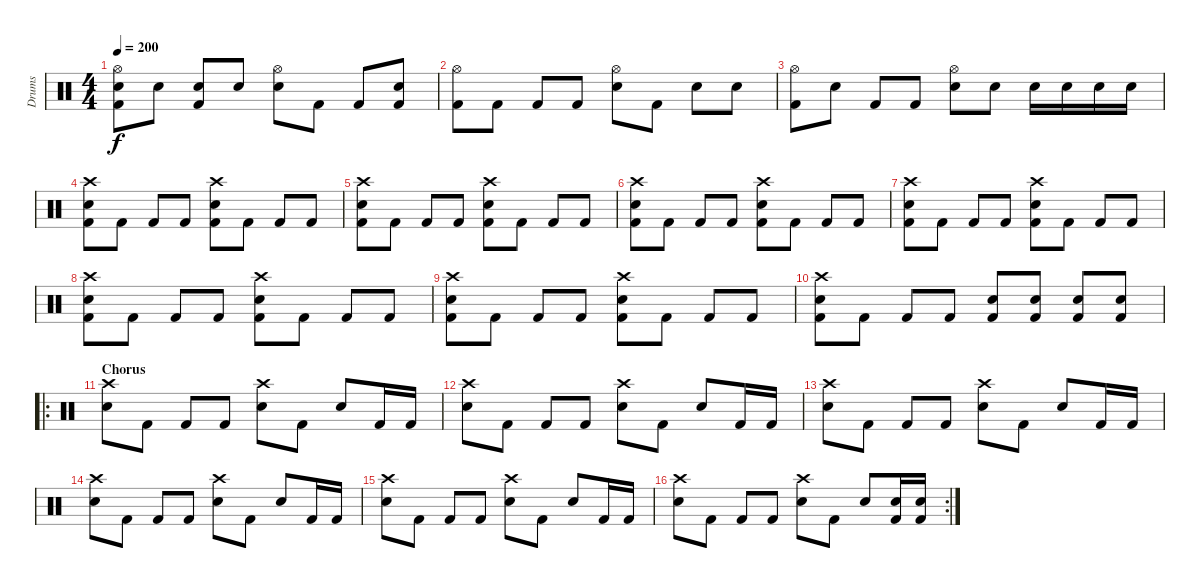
\track ("Drums" "Drums") {instrument percussion}
\staff {score}
\articulation defaults
\ts (4 4)
\tempo 200
\clef neutral
\ks c
("Hi-Hat (open)" "Electric Snare (hit)" "Kick (hit) 2").8{dy f} "Electric Snare (hit)".8 ("Electric Snare (hit)" "Kick (hit) 2").8 "Electric Snare (hit)".8 ("Hi-Hat (open)" "Electric Snare (hit)").8 "Kick (hit) 2".8 "Kick (hit) 2".8 ("Electric Snare (hit)" "Kick (hit) 2").8 |
("Hi-Hat (open)" "Kick (hit) 2").8 "Kick (hit) 2".8 "Kick (hit) 2".8 "Kick (hit) 2".8 ("Hi-Hat (open)" "Electric Snare (hit)").8 "Kick (hit) 2".8 "Electric Snare (hit)".8 "Electric Snare (hit)".8 |
("Hi-Hat (open)" "Kick (hit) 2").8 "Electric Snare (hit)".8 "Kick (hit) 2".8 "Kick (hit) 2".8 ("Hi-Hat (open)" "Electric Snare (hit)").8 "Electric Snare (hit)".8 "Electric Snare (hit)".16 "Electric Snare (hit)".16 "Electric Snare (hit)".16 "Electric Snare (hit)".16 |
("Crash high (hit)" "Electric Snare (hit)" "Kick (hit) 2").8 "Kick (hit) 2".8 "Kick (hit) 2".8 "Kick (hit) 2".8 ("Crash high (hit)" "Electric Snare (hit)" "Kick (hit) 2").8 "Kick (hit) 2".8 "Kick (hit) 2".8 "Kick (hit) 2".8 |
("Crash high (hit)" "Electric Snare (hit)" "Kick (hit) 2").8 "Kick (hit) 2".8 "Kick (hit) 2".8 "Kick (hit) 2".8 ("Crash high (hit)" "Electric Snare (hit)" "Kick (hit) 2").8 "Kick (hit) 2".8 "Kick (hit) 2".8 "Kick (hit) 2".8 |
("Crash high (hit)" "Electric Snare (hit)" "Kick (hit) 2").8 "Kick (hit) 2".8 "Kick (hit) 2".8 "Kick (hit) 2".8 ("Crash high (hit)" "Electric Snare (hit)" "Kick (hit) 2").8 "Kick (hit) 2".8 "Kick (hit) 2".8 "Kick (hit) 2".8 |
("Crash high (hit)" "Electric Snare (hit)" "Kick (hit) 2").8 "Kick (hit) 2".8 "Kick (hit) 2".8 "Kick (hit) 2".8 ("Crash high (hit)" "Electric Snare (hit)" "Kick (hit) 2").8 "Kick (hit) 2".8 "Kick (hit) 2".8 "Kick (hit) 2".8 |
("Crash high (hit)" "Electric Snare (hit)" "Kick (hit) 2").8 "Kick (hit) 2".8 "Kick (hit) 2".8 "Kick (hit) 2".8 ("Crash high (hit)" "Electric Snare (hit)" "Kick (hit) 2").8 "Kick (hit) 2".8 "Kick (hit) 2".8 "Kick (hit) 2".8 |
("Crash high (hit)" "Electric Snare (hit)" "Kick (hit) 2").8 "Kick (hit) 2".8 "Kick (hit) 2".8 "Kick (hit) 2".8 ("Crash high (hit)" "Electric Snare (hit)" "Kick (hit) 2").8 "Kick (hit) 2".8 "Kick (hit) 2".8 "Kick (hit) 2".8 |
("Crash high (hit)" "Electric Snare (hit)" "Kick (hit) 2").8 "Kick (hit) 2".8 "Kick (hit) 2".8 "Kick (hit) 2".8 ("Electric Snare (hit)" "Kick (hit) 2").8 ("Electric Snare (hit)" "Kick (hit) 2").8 ("Electric Snare (hit)" "Kick (hit) 2").8 ("Electric Snare (hit)" "Kick (hit) 2").8 |
\ro
\section ("" "Chorus")
("Crash high (hit)" "Electric Snare (hit)").8 "Kick (hit) 2".8 "Kick (hit) 2".8 "Kick (hit) 2".8 ("Crash high (hit)" "Electric Snare (hit)").8 "Kick (hit) 2".8 "Electric Snare (hit)".8 "Kick (hit) 2".16 "Kick (hit) 2".16 |
("Crash high (hit)" "Electric Snare (hit)").8 "Kick (hit) 2".8 "Kick (hit) 2".8 "Kick (hit) 2".8 ("Crash high (hit)" "Electric Snare (hit)").8 "Kick (hit) 2".8 "Electric Snare (hit)".8 "Kick (hit) 2".16 "Kick (hit) 2".16 |
("Crash high (hit)" "Electric Snare (hit)").8 "Kick (hit) 2".8 "Kick (hit) 2".8 "Kick (hit) 2".8 ("Crash high (hit)" "Electric Snare (hit)").8 "Kick (hit) 2".8 "Electric Snare (hit)".8 "Kick (hit) 2".16 "Kick (hit) 2".16 |
("Crash high (hit)" "Electric Snare (hit)").8 "Kick (hit) 2".8 "Kick (hit) 2".8 "Kick (hit) 2".8 ("Crash high (hit)" "Electric Snare (hit)").8 "Kick (hit) 2".8 "Electric Snare (hit)".8 "Kick (hit) 2".16 "Kick (hit) 2".16 |
("Crash high (hit)" "Electric Snare (hit)").8 "Kick (hit) 2".8 "Kick (hit) 2".8 "Kick (hit) 2".8 ("Crash high (hit)" "Electric Snare (hit)").8 "Kick (hit) 2".8 "Electric Snare (hit)".8 "Kick (hit) 2".16 "Kick (hit) 2".16 |
\rc 2
("Crash high (hit)" "Electric Snare (hit)").8 "Kick (hit) 2".8 "Kick (hit) 2".8 "Kick (hit) 2".8 ("Crash high (hit)" "Electric Snare (hit)").8 "Kick (hit) 2".8 "Electric Snare (hit)".8 ("Electric Snare (hit)" "Kick (hit) 2").16 ("Electric Snare (hit)" "Kick (hit) 2").16
